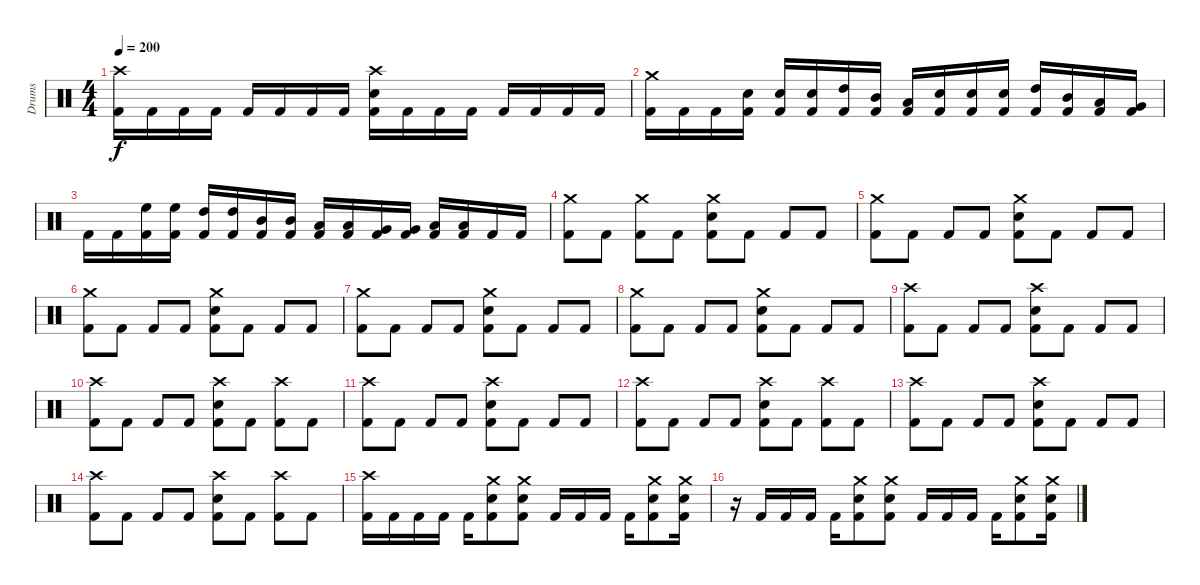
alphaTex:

\track ("Drums" "Drums") {instrument percussion}
\staff {score}
\articulation defaults
\ts (4 4)
\tempo 200
\clef neutral
\ks c
("Crash high (hit)" "Kick (hit) 2").16{dy f} "Kick (hit) 2".16 "Kick (hit) 2".16 "Kick (hit) 2".16 "Kick (hit) 2".16 "Kick (hit) 2".16 "Kick (hit) 2".16 "Kick (hit) 2".16 ("Crash high (hit)" "Electric Snare (hit)" "Kick (hit) 2").16 "Kick (hit) 2".16 "Kick (hit) 2".16 "Kick (hit) 2".16 "Kick (hit) 2".16 "Kick (hit) 2".16 "Kick (hit) 2".16 "Kick (hit) 2".16 |
("Crash medium (hit)" "Kick (hit) 2").16 "Kick (hit) 2".16 "Kick (hit) 2".16 ("Electric Snare (hit)" "Kick (hit) 2").16 ("Electric Snare (hit)" "Kick (hit) 2").16 ("Electric Snare (hit)" "Kick (hit) 2").16 ("High Tom (hit)" "Kick (hit) 2").16 ("Mid Tom (hit)" "Kick (hit) 2").16 ("Low Tom (hit)" "Kick (hit) 2").16 ("Electric Snare (hit)" "Kick (hit) 2").16 ("Electric Snare (hit)" "Kick (hit) 2").16 ("Electric Snare (hit)" "Kick (hit) 2").16 ("High Tom (hit)" "Kick (hit) 2").16 ("Mid Tom (hit)" "Kick (hit) 2").16 ("Low Tom (hit)" "Kick (hit) 2").16 ("Very Low Tom (hit)" "Kick (hit) 2").16 |
"Kick (hit) 2".16 "Kick (hit) 2".16 ("High Floor Tom (hit)" "Kick (hit) 2").16 ("High Floor Tom (hit)" "Kick (hit) 2").16 ("High Tom (hit)" "Kick (hit) 2").16 ("High Tom (hit)" "Kick (hit) 2").16 ("Mid Tom (hit)" "Kick (hit) 2").16 ("Mid Tom (hit)" "Kick (hit) 2").16 ("Low Tom (hit)" "Kick (hit) 2").16 ("Low Tom (hit)" "Kick (hit) 2").16 ("Very Low Tom (hit)" "Kick (hit) 2").16 ("Very Low Tom (hit)" "Kick (hit) 2").16 ("Low Floor Tom (hit)" "Kick (hit) 2").16 ("Low Floor Tom (hit)" "Kick (hit) 2").16 "Kick (hit) 2".16 "Kick (hit) 2".16 |
("Crash medium (hit)" "Kick (hit) 2").8 "Kick (hit) 2".8 ("Crash medium (hit)" "Kick (hit) 2").8 "Kick (hit) 2".8 ("Crash medium (hit)" "Electric Snare (hit)" "Kick (hit) 2").8 "Kick (hit) 2".8 "Kick (hit) 2".8 "Kick (hit) 2".8 |
("Crash medium (hit)" "Kick (hit) 2").8 "Kick (hit) 2".8 "Kick (hit) 2".8 "Kick (hit) 2".8 ("Crash medium (hit)" "Electric Snare (hit)" "Kick (hit) 2").8 "Kick (hit) 2".8 "Kick (hit) 2".8 "Kick (hit) 2".8 |
("Crash medium (hit)" "Kick (hit) 2").8 "Kick (hit) 2".8 "Kick (hit) 2".8 "Kick (hit) 2".8 ("Crash medium (hit)" "Electric Snare (hit)" "Kick (hit) 2").8 "Kick (hit) 2".8 "Kick (hit) 2".8 "Kick (hit) 2".8 |
("Crash medium (hit)" "Kick (hit) 2").8 "Kick (hit) 2".8 "Kick (hit) 2".8 "Kick (hit) 2".8 ("Crash medium (hit)" "Electric Snare (hit)" "Kick (hit) 2").8 "Kick (hit) 2".8 "Kick (hit) 2".8 "Kick (hit) 2".8 |
("Crash medium (hit)" "Kick (hit) 2").8 "Kick (hit) 2".8 "Kick (hit) 2".8 "Kick (hit) 2".8 ("Crash medium (hit)" "Electric Snare (hit)" "Kick (hit) 2").8 "Kick (hit) 2".8 "Kick (hit) 2".8 "Kick (hit) 2".8 |
("Crash high (hit)" "Kick (hit) 2").8 "Kick (hit) 2".8 "Kick (hit) 2".8 "Kick (hit) 2".8 ("Crash high (hit)" "Electric Snare (hit)" "Kick (hit) 2").8 "Kick (hit) 2".8 "Kick (hit) 2".8 "Kick (hit) 2".8 |
("Crash high (hit)" "Kick (hit) 2").8 "Kick (hit) 2".8 "Kick (hit) 2".8 "Kick (hit) 2".8 ("Crash high (hit)" "Electric Snare (hit)" "Kick (hit) 2").8 "Kick (hit) 2".8 ("Crash high (hit)" "Kick (hit) 2").8 "Kick (hit) 2".8 |
("Crash high (hit)" "Kick (hit) 2").8 "Kick (hit) 2".8 "Kick (hit) 2".8 "Kick (hit) 2".8 ("Crash high (hit)" "Electric Snare (hit)" "Kick (hit) 2").8 "Kick (hit) 2".8 "Kick (hit) 2".8 "Kick (hit) 2".8 |
("Crash high (hit)" "Kick (hit) 2").8 "Kick (hit) 2".8 "Kick (hit) 2".8 "Kick (hit) 2".8 ("Crash high (hit)" "Electric Snare (hit)" "Kick (hit) 2").8 "Kick (hit) 2".8 ("Crash high (hit)" "Kick (hit) 2").8 "Kick (hit) 2".8 |
("Crash high (hit)" "Kick (hit) 2").8 "Kick (hit) 2".8 "Kick (hit) 2".8 "Kick (hit) 2".8 ("Crash high (hit)" "Electric Snare (hit)" "Kick (hit) 2").8 "Kick (hit) 2".8 "Kick (hit) 2".8 "Kick (hit) 2".8 |
("Crash high (hit)" "Kick (hit) 2").8 "Kick (hit) 2".8 "Kick (hit) 2".8 "Kick (hit) 2".8 ("Crash high (hit)" "Electric Snare (hit)" "Kick (hit) 2").8 "Kick (hit) 2".8 ("Crash high (hit)" "Kick (hit) 2").8 "Kick (hit) 2".8 |
("Crash high (hit)" "Kick (hit) 2").16 "Kick (hit) 2".16 "Kick (hit) 2".16 "Kick (hit) 2".16 "Kick (hit) 2".16 ("Crash medium (hit)" "Electric Snare (hit)" "Kick (hit) 2").8 ("Crash medium (hit)" "Electric Snare (hit)" "Kick (hit) 2").8 "Kick (hit) 2".16 "Kick (hit) 2".16 "Kick (hit) 2".16 "Kick (hit) 2".16 ("Crash medium (hit)" "Electric Snare (hit)" "Kick (hit) 2").8 ("Crash medium (hit)" "Electric Snare (hit)" "Kick (hit) 2").16 |
r.16 "Kick (hit) 2".16 "Kick (hit) 2".16 "Kick (hit) 2".16 "Kick (hit) 2".16 ("Crash medium (hit)" "Electric Snare (hit)" "Kick (hit) 2").8 ("Crash medium (hit)" "Electric Snare (hit)" "Kick (hit) 2").8 "Kick (hit) 2".16 "Kick (hit) 2".16 "Kick (hit) 2".16 "Kick (hit) 2".16 ("Crash medium (hit)" "Electric Snare (hit)" "Kick (hit) 2").8 ("Crash medium (hit)" "Electric Snare (hit)" "Kick (hit) 2").16
